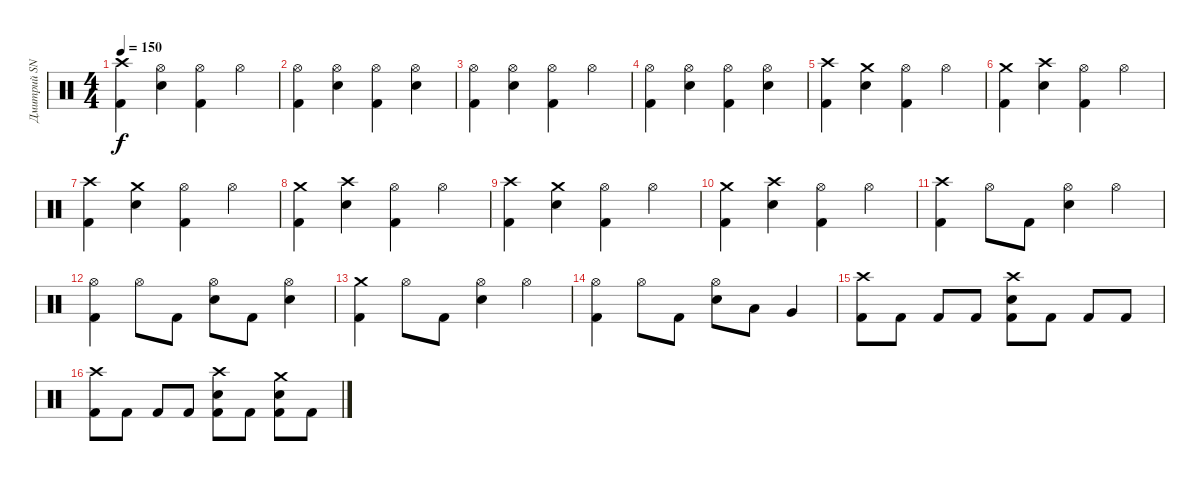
\track ("Дмитрий SNAKE Хакимов" "Дмитрий SN") {instrument percussion}
\staff {score}
\articulation defaults
\ts (4 4)
\tempo 150
\clef neutral
\ks c
("Crash high (hit)" "Kick (hit) 2").4{dy f} ("Hi-Hat (open)" "Snare (hit) 2").4 ("Hi-Hat (open)" "Kick (hit) 2").4 "Hi-Hat (open)".4 |
("Hi-Hat (open)" "Kick (hit) 2").4 ("Hi-Hat (open)" "Snare (hit) 2").4 ("Hi-Hat (open)" "Kick (hit) 2").4 ("Hi-Hat (open)" "Snare (hit) 2").4 |
("Hi-Hat (open)" "Kick (hit) 2").4 ("Hi-Hat (open)" "Snare (hit) 2").4 ("Hi-Hat (open)" "Kick (hit) 2").4 "Hi-Hat (open)".4 |
("Hi-Hat (open)" "Kick (hit) 2").4 ("Hi-Hat (open)" "Snare (hit) 2").4 ("Hi-Hat (open)" "Kick (hit) 2").4 ("Hi-Hat (open)" "Snare (hit) 2").4 |
("Crash high (hit)" "Kick (hit) 2").4 ("Crash medium (hit)" "Snare (hit) 2").4 ("Hi-Hat (open)" "Kick (hit) 2").4 "Hi-Hat (open)".4 |
("Crash medium (hit)" "Kick (hit) 2").4 ("Crash high (hit)" "Snare (hit) 2").4 ("Hi-Hat (open)" "Kick (hit) 2").4 "Hi-Hat (open)".4 |
("Crash high (hit)" "Kick (hit) 2").4 ("Crash medium (hit)" "Snare (hit) 2").4 ("Hi-Hat (open)" "Kick (hit) 2").4 "Hi-Hat (open)".4 |
("Crash medium (hit)" "Kick (hit) 2").4 ("Crash high (hit)" "Snare (hit) 2").4 ("Hi-Hat (open)" "Kick (hit) 2").4 "Hi-Hat (open)".4 |
("Crash high (hit)" "Kick (hit) 2").4 ("Crash medium (hit)" "Snare (hit) 2").4 ("Hi-Hat (open)" "Kick (hit) 2").4 "Hi-Hat (open)".4 |
("Crash medium (hit)" "Kick (hit) 2").4 ("Crash high (hit)" "Snare (hit) 2").4 ("Hi-Hat (open)" "Kick (hit) 2").4 "Hi-Hat (open)".4 |
("Crash high (hit)" "Kick (hit) 2").4 "Hi-Hat (open)".8 "Kick (hit) 2".8 ("Hi-Hat (open)" "Snare (hit) 2").4 "Hi-Hat (open)".4 |
("Hi-Hat (open)" "Kick (hit) 2").4 "Hi-Hat (open)".8 "Kick (hit) 2".8 ("Hi-Hat (open)" "Snare (hit) 2").8 "Kick (hit) 2".8 ("Hi-Hat (open)" "Snare (hit) 2").4 |
("Crash medium (hit)" "Kick (hit) 2").4 "Hi-Hat (open)".8 "Kick (hit) 2".8 ("Hi-Hat (open)" "Snare (hit) 2").4 "Hi-Hat (open)".4 |
("Hi-Hat (open)" "Kick (hit) 2").4 "Hi-Hat (open)".8 "Kick (hit) 2".8 ("Hi-Hat (open)" "Snare (hit) 2").8 "Low Tom (hit)".8 "Very Low Tom (hit)".4 |
("Crash high (hit)" "Kick (hit) 2").8 "Kick (hit) 2".8 "Kick (hit) 2".8 "Kick (hit) 2".8 ("Crash high (hit)" "Snare (hit) 2" "Kick (hit) 2").8 "Kick (hit) 2".8 "Kick (hit) 2".8 "Kick (hit) 2".8 |
("Crash high (hit)" "Kick (hit) 2").8 "Kick (hit) 2".8 "Kick (hit) 2".8 "Kick (hit) 2".8 ("Crash high (hit)" "Snare (hit) 2" "Kick (hit) 2").8 "Kick (hit) 2".8 ("Crash medium (hit)" "Snare (hit) 2" "Kick (hit) 2").8 "Kick (hit) 2".8
